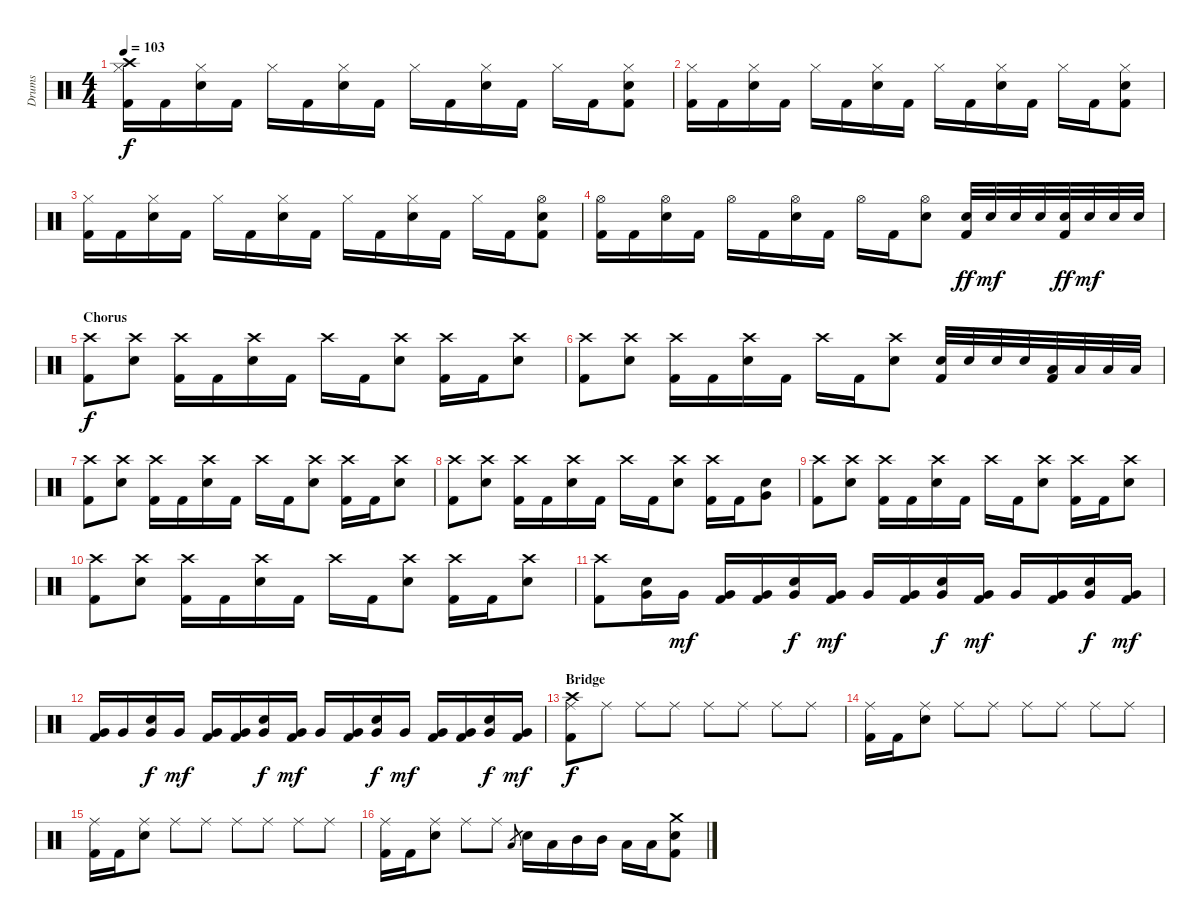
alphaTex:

\track ("Drums" "Drums") {instrument percussion}
\staff {score}
\articulation defaults
\ts (4 4)
\tempo 103
\clef neutral
\ks c
("Crash high (hit)" "Hi-Hat (closed)" "Kick (hit) 2").16{dy f} "Kick (hit) 2".16 ("Hi-Hat (closed)" "Electric Snare (hit)").16 "Kick (hit) 2".16 "Hi-Hat (closed)".16 "Kick (hit) 2".16 ("Hi-Hat (closed)" "Electric Snare (hit)").16 "Kick (hit) 2".16 "Hi-Hat (closed)".16 "Kick (hit) 2".16 ("Hi-Hat (closed)" "Electric Snare (hit)").16 "Kick (hit) 2".16 "Hi-Hat (closed)".16 "Kick (hit) 2".16 ("Hi-Hat (closed)" "Electric Snare (hit)" "Kick (hit) 2").8 |
("Hi-Hat (closed)" "Kick (hit) 2").16 "Kick (hit) 2".16 ("Hi-Hat (closed)" "Electric Snare (hit)").16 "Kick (hit) 2".16 "Hi-Hat (closed)".16 "Kick (hit) 2".16 ("Hi-Hat (closed)" "Electric Snare (hit)").16 "Kick (hit) 2".16 "Hi-Hat (closed)".16 "Kick (hit) 2".16 ("Hi-Hat (closed)" "Electric Snare (hit)").16 "Kick (hit) 2".16 "Hi-Hat (closed)".16 "Kick (hit) 2".16 ("Hi-Hat (closed)" "Electric Snare (hit)" "Kick (hit) 2").8 |
("Hi-Hat (closed)" "Kick (hit) 2").16 "Kick (hit) 2".16 ("Hi-Hat (closed)" "Electric Snare (hit)").16 "Kick (hit) 2".16 "Hi-Hat (closed)".16 "Kick (hit) 2".16 ("Hi-Hat (closed)" "Electric Snare (hit)").16 "Kick (hit) 2".16 "Hi-Hat (closed)".16 "Kick (hit) 2".16 ("Hi-Hat (closed)" "Electric Snare (hit)").16 "Kick (hit) 2".16 "Hi-Hat (closed)".16 "Kick (hit) 2".16 ("Hi-Hat (open)" "Electric Snare (hit)" "Kick (hit) 2").8 |
("Hi-Hat (open)" "Kick (hit) 2").16 "Kick (hit) 2".16 ("Hi-Hat (open)" "Electric Snare (hit)").16 "Kick (hit) 2".16 "Hi-Hat (open)".16 "Kick (hit) 2".16 ("Hi-Hat (open)" "Electric Snare (hit)").16 "Kick (hit) 2".16 "Hi-Hat (open)".16 "Kick (hit) 2".16 ("Hi-Hat (open)" "Electric Snare (hit)").8 ("Electric Snare (hit)" "Kick (hit) 2").32{dy ff} "Electric Snare (hit)".32{dy mf} "Electric Snare (hit)".32 "Electric Snare (hit)".32 ("Electric Snare (hit)" "Kick (hit) 2").32{dy ff} "Electric Snare (hit)".32{dy mf} "Electric Snare (hit)".32 "Electric Snare (hit)".32 |
\section ("" "Chorus")
("Crash high (hit)" "Kick (hit) 2").8{dy f} ("Crash high (hit)" "Electric Snare (hit)").8 ("Crash high (hit)" "Kick (hit) 2").16 "Kick (hit) 2".16 ("Crash high (hit)" "Electric Snare (hit)").16 "Kick (hit) 2".16 "Crash high (hit)".16 "Kick (hit) 2".16 ("Crash high (hit)" "Electric Snare (hit)").8 ("Crash high (hit)" "Kick (hit) 2").16 "Kick (hit) 2".16 ("Crash high (hit)" "Electric Snare (hit)").8 |
("Crash high (hit)" "Kick (hit) 2").8 ("Crash high (hit)" "Electric Snare (hit)").8 ("Crash high (hit)" "Kick (hit) 2").16 "Kick (hit) 2".16 ("Crash high (hit)" "Electric Snare (hit)").16 "Kick (hit) 2".16 "Crash high (hit)".16 "Kick (hit) 2".16 ("Crash high (hit)" "Electric Snare (hit)").8 ("Electric Snare (hit)" "Kick (hit) 2").32 "Electric Snare (hit)".32 "Electric Snare (hit)".32 "Electric Snare (hit)".32 ("Low Tom (hit)" "Kick (hit) 2").32 "Low Tom (hit)".32 "Low Tom (hit)".32 "Low Tom (hit)".32 |
("Crash high (hit)" "Kick (hit) 2").8 ("Crash high (hit)" "Electric Snare (hit)").8 ("Crash high (hit)" "Kick (hit) 2").16 "Kick (hit) 2".16 ("Crash high (hit)" "Electric Snare (hit)").16 "Kick (hit) 2".16 "Crash high (hit)".16 "Kick (hit) 2".16 ("Crash high (hit)" "Electric Snare (hit)").8 ("Crash high (hit)" "Kick (hit) 2").16 "Kick (hit) 2".16 ("Crash high (hit)" "Electric Snare (hit)").8 |
("Crash high (hit)" "Kick (hit) 2").8 ("Crash high (hit)" "Electric Snare (hit)").8 ("Crash high (hit)" "Kick (hit) 2").16 "Kick (hit) 2".16 ("Crash high (hit)" "Electric Snare (hit)").16 "Kick (hit) 2".16 "Crash high (hit)".16 "Kick (hit) 2".16 ("Crash high (hit)" "Electric Snare (hit)").8 ("Crash high (hit)" "Kick (hit) 2").16 "Kick (hit) 2".16 ("Very Low Tom (hit)" "Electric Snare (hit)").8 |
("Crash high (hit)" "Kick (hit) 2").8 ("Crash high (hit)" "Electric Snare (hit)").8 ("Crash high (hit)" "Kick (hit) 2").16 "Kick (hit) 2".16 ("Crash high (hit)" "Electric Snare (hit)").16 "Kick (hit) 2".16 "Crash high (hit)".16 "Kick (hit) 2".16 ("Crash high (hit)" "Electric Snare (hit)").8 ("Crash high (hit)" "Kick (hit) 2").16 "Kick (hit) 2".16 ("Crash high (hit)" "Electric Snare (hit)").8 |
("Crash high (hit)" "Kick (hit) 2").8 ("Crash high (hit)" "Electric Snare (hit)").8 ("Crash high (hit)" "Kick (hit) 2").16 "Kick (hit) 2".16 ("Crash high (hit)" "Electric Snare (hit)").16 "Kick (hit) 2".16 "Crash high (hit)".16 "Kick (hit) 2".16 ("Crash high (hit)" "Electric Snare (hit)").8 ("Crash high (hit)" "Kick (hit) 2").16 "Kick (hit) 2".16 ("Crash high (hit)" "Electric Snare (hit)").8 |
("Crash high (hit)" "Kick (hit) 2").8 ("Very Low Tom (hit)" "Electric Snare (hit)").16 "Very Low Tom (hit)".16{dy mf} ("Very Low Tom (hit)" "Kick (hit) 2").16 ("Very Low Tom (hit)" "Kick (hit) 2").16 ("Very Low Tom (hit)" "Electric Snare (hit)").16{dy f} ("Very Low Tom (hit)" "Kick (hit) 2").16{dy mf} "Very Low Tom (hit)".16 ("Very Low Tom (hit)" "Kick (hit) 2").16 ("Very Low Tom (hit)" "Electric Snare (hit)").16{dy f} ("Very Low Tom (hit)" "Kick (hit) 2").16{dy mf} "Very Low Tom (hit)".16 ("Very Low Tom (hit)" "Kick (hit) 2").16 ("Very Low Tom (hit)" "Electric Snare (hit)").16{dy f} ("Very Low Tom (hit)" "Kick (hit) 2").16{dy mf} |
("Very Low Tom (hit)" "Kick (hit) 2").16 "Very Low Tom (hit)".16 ("Very Low Tom (hit)" "Electric Snare (hit)").16{dy f} "Very Low Tom (hit)".16{dy mf} ("Very Low Tom (hit)" "Kick (hit) 2").16 ("Very Low Tom (hit)" "Kick (hit) 2").16 ("Very Low Tom (hit)" "Electric Snare (hit)").16{dy f} ("Very Low Tom (hit)" "Kick (hit) 2").16{dy mf} "Very Low Tom (hit)".16 ("Very Low Tom (hit)" "Kick (hit) 2").16 ("Very Low Tom (hit)" "Electric Snare (hit)").16{dy f} "Very Low Tom (hit)".16{dy mf} ("Very Low Tom (hit)" "Kick (hit) 2").16 ("Very Low Tom (hit)" "Kick (hit) 2").16 ("Very Low Tom (hit)" "Electric Snare (hit)").16{dy f} ("Very Low Tom (hit)" "Kick (hit) 2").16{dy mf} |
\section ("" "Bridge")
("Crash high (hit)" "Ride (middle)" "Kick (hit) 2").8{dy f} "Ride (middle)".8 "Ride (middle)".8 "Ride (middle)".8 "Ride (middle)".8 "Ride (middle)".8 "Ride (middle)".8 "Ride (middle)".8 |
("Ride (middle)" "Kick (hit) 2").16 "Kick (hit) 2".16 ("Ride (middle)" "Electric Snare (hit)").8 "Ride (middle)".8 "Ride (middle)".8 "Ride (middle)".8 "Ride (middle)".8 "Ride (middle)".8 "Ride (middle)".8 |
("Ride (middle)" "Kick (hit) 2").16 "Kick (hit) 2".16 ("Ride (middle)" "Electric Snare (hit)").8 "Ride (middle)".8 "Ride (middle)".8 "Ride (middle)".8 "Ride (middle)".8 "Ride (middle)".8 "Ride (middle)".8 |
("Ride (middle)" "Kick (hit) 2").16 "Kick (hit) 2".16 ("Ride (middle)" "Electric Snare (hit)").8 "Ride (middle)".8 "Ride (middle)".8 "Low Tom (hit)".8{gr} "Electric Snare (hit)".16 "Low Tom (hit)".16 "Mid Tom (hit)".16 "Mid Tom (hit)".16 "Low Tom (hit)".16 "Low Tom (hit)".16 ("Crash medium (hit)" "Electric Snare (hit)" "Kick (hit) 2").8
